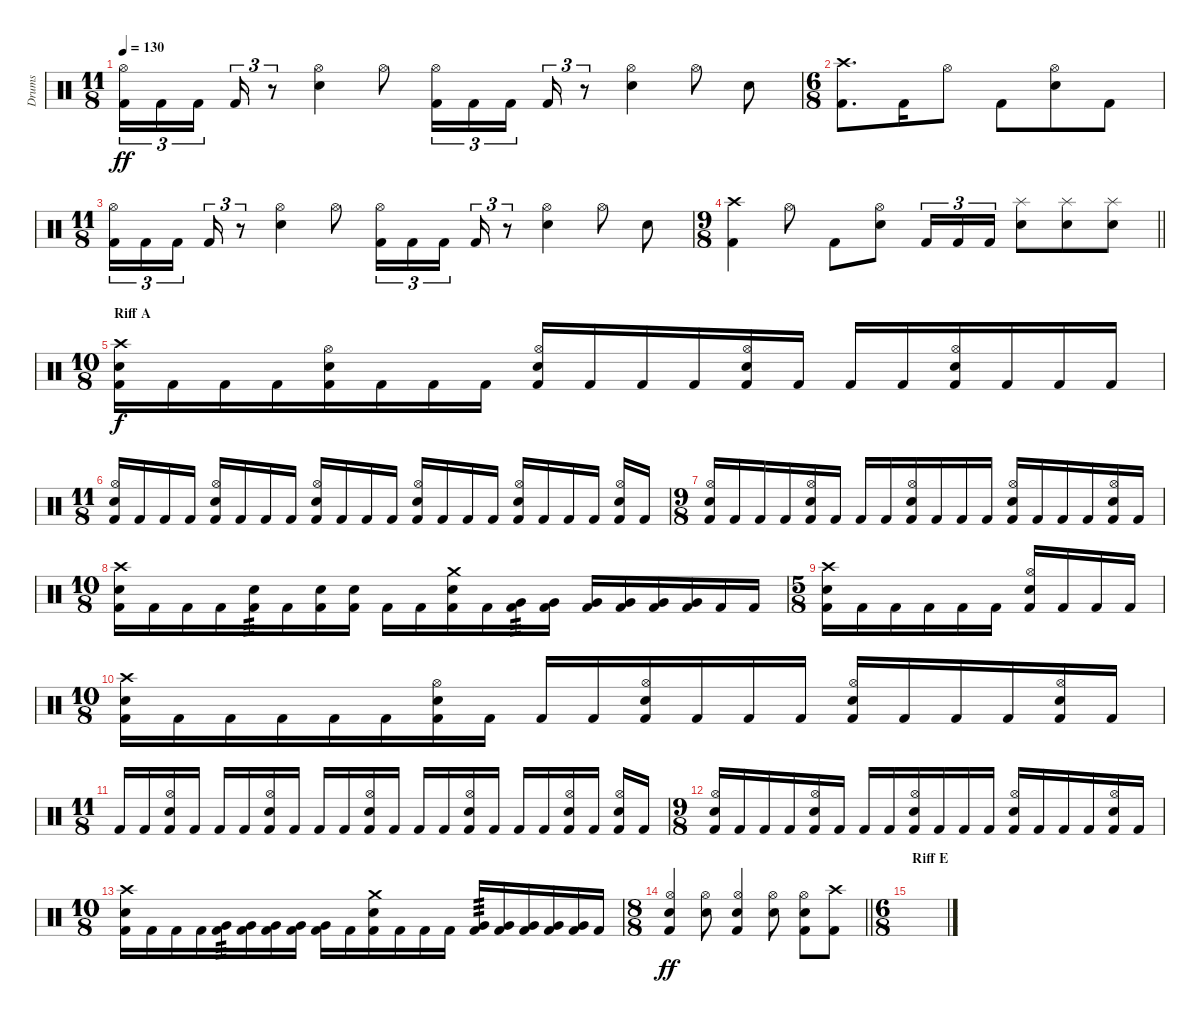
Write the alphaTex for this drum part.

\track ("Drums" "Drums") {instrument percussion}
\staff {score}
\articulation defaults
\ts (11 8)
\tempo 130
\clef neutral
\ks c
("Kick (hit) 2" "Hi-Hat (open)").16{tu (3 2) dy ff} "Kick (hit) 2".16{tu (3 2)} "Kick (hit) 2".16{tu (3 2)} "Kick (hit) 2".16{tu (3 2)} r.8{tu (3 2)} ("Hi-Hat (open)" "Snare (hit) 2").4 "Hi-Hat (open)".8 ("Kick (hit) 2" "Hi-Hat (open)").16{tu (3 2)} "Kick (hit) 2".16{tu (3 2)} "Kick (hit) 2".16{tu (3 2)} "Kick (hit) 2".16{tu (3 2)} r.8{tu (3 2)} ("Hi-Hat (open)" "Snare (hit) 2").4 "Hi-Hat (open)".8 "Snare (hit) 2".8 |
\ts (6 8)
("Crash high (hit)" "Kick (hit) 2").8{d} "Kick (hit) 2".16 "Hi-Hat (open)".8 "Kick (hit) 2".8 ("Snare (hit) 2" "Hi-Hat (open)").8 "Kick (hit) 2".8 |
\ts (11 8)
("Kick (hit) 2" "Hi-Hat (open)").16{tu (3 2)} "Kick (hit) 2".16{tu (3 2)} "Kick (hit) 2".16{tu (3 2)} "Kick (hit) 2".16{tu (3 2)} r.8{tu (3 2)} ("Hi-Hat (open)" "Snare (hit) 2").4 "Hi-Hat (open)".8 ("Kick (hit) 2" "Hi-Hat (open)").16{tu (3 2)} "Kick (hit) 2".16{tu (3 2)} "Kick (hit) 2".16{tu (3 2)} "Kick (hit) 2".16{tu (3 2)} r.8{tu (3 2)} ("Hi-Hat (open)" "Snare (hit) 2").4 "Hi-Hat (open)".8 "Snare (hit) 2".8 |
\ts (9 8)
\barLineRight lightlight
("Crash high (hit)" "Kick (hit) 2").4 "Hi-Hat (open)".8 "Kick (hit) 2".8 ("Hi-Hat (open)" "Snare (hit) 2").8 "Kick (hit) 2".16{tu (3 2)} "Kick (hit) 2".16{tu (3 2)} "Kick (hit) 2".16{tu (3 2)} ("Snare (hit) 2" "Splash (hit)").8 ("Snare (hit) 2" "Splash (hit)").8 ("Snare (hit) 2" "Splash (hit)").8 |
\ts (10 8)
\section ("" "Riff A")
("Crash high (hit)" "Kick (hit) 2" "Snare (hit) 2").16{dy f} "Kick (hit) 2".16 "Kick (hit) 2".16 "Kick (hit) 2".16 ("Hi-Hat (open)" "Kick (hit) 2" "Snare (hit) 2").16 "Kick (hit) 2".16 "Kick (hit) 2".16 "Kick (hit) 2".16 ("Hi-Hat (open)" "Kick (hit) 2" "Snare (hit) 2").16 "Kick (hit) 2".16 "Kick (hit) 2".16 "Kick (hit) 2".16 ("Hi-Hat (open)" "Kick (hit) 2" "Snare (hit) 2").16 "Kick (hit) 2".16 "Kick (hit) 2".16 "Kick (hit) 2".16 ("Hi-Hat (open)" "Kick (hit) 2" "Snare (hit) 2").16 "Kick (hit) 2".16 "Kick (hit) 2".16 "Kick (hit) 2".16 |
\ts (11 8)
("Hi-Hat (open)" "Kick (hit) 2" "Snare (hit) 2").16 "Kick (hit) 2".16 "Kick (hit) 2".16 "Kick (hit) 2".16 ("Hi-Hat (open)" "Kick (hit) 2" "Snare (hit) 2").16 "Kick (hit) 2".16 "Kick (hit) 2".16 "Kick (hit) 2".16 ("Hi-Hat (open)" "Kick (hit) 2" "Snare (hit) 2").16 "Kick (hit) 2".16 "Kick (hit) 2".16 "Kick (hit) 2".16 ("Hi-Hat (open)" "Kick (hit) 2" "Snare (hit) 2").16 "Kick (hit) 2".16 "Kick (hit) 2".16 "Kick (hit) 2".16 ("Hi-Hat (open)" "Kick (hit) 2" "Snare (hit) 2").16 "Kick (hit) 2".16 "Kick (hit) 2".16 "Kick (hit) 2".16 ("Hi-Hat (open)" "Kick (hit) 2" "Snare (hit) 2").16 "Kick (hit) 2".16 |
\ts (9 8)
("Hi-Hat (open)" "Kick (hit) 2" "Snare (hit) 2").16 "Kick (hit) 2".16 "Kick (hit) 2".16 "Kick (hit) 2".16 ("Hi-Hat (open)" "Kick (hit) 2" "Snare (hit) 2").16 "Kick (hit) 2".16 "Kick (hit) 2".16 "Kick (hit) 2".16 ("Hi-Hat (open)" "Kick (hit) 2" "Snare (hit) 2").16 "Kick (hit) 2".16 "Kick (hit) 2".16 "Kick (hit) 2".16 ("Hi-Hat (open)" "Kick (hit) 2" "Snare (hit) 2").16 "Kick (hit) 2".16 "Kick (hit) 2".16 "Kick (hit) 2".16 ("Hi-Hat (open)" "Kick (hit) 2" "Snare (hit) 2").16 "Kick (hit) 2".16 |
\ts (10 8)
("Crash high (hit)" "Kick (hit) 2" "Snare (hit) 2").16 "Kick (hit) 2".16 "Kick (hit) 2".16 "Kick (hit) 2".16 ("Kick (hit) 2" "Snare (hit) 2").16{tp 3} "Kick (hit) 2".16 ("Kick (hit) 2" "Snare (hit) 2").16 ("Kick (hit) 2" "Snare (hit) 2").16 "Kick (hit) 2".16 "Kick (hit) 2".16 ("Kick (hit) 2" "Crash medium (hit)" "Snare (hit) 2").16 "Kick (hit) 2".16 ("Kick (hit) 2" "Very Low Tom (hit)").16{tp 3} ("Kick (hit) 2" "Very Low Tom (hit)").16 ("Kick (hit) 2" "Very Low Tom (hit)").16 ("Kick (hit) 2" "Very Low Tom (hit)").16 ("Kick (hit) 2" "Very Low Tom (hit)").16 ("Kick (hit) 2" "Very Low Tom (hit)").16 "Kick (hit) 2".16 "Kick (hit) 2".16 |
\ts (5 8)
("Kick (hit) 2" "Snare (hit) 2" "Crash high (hit)").16 "Kick (hit) 2".16 "Kick (hit) 2".16 "Kick (hit) 2".16 "Kick (hit) 2".16 "Kick (hit) 2".16 ("Kick (hit) 2" "Hi-Hat (open)" "Snare (hit) 2").16 "Kick (hit) 2".16 "Kick (hit) 2".16 "Kick (hit) 2".16 |
\ts (10 8)
("Crash high (hit)" "Kick (hit) 2" "Snare (hit) 2").16 "Kick (hit) 2".16 "Kick (hit) 2".16 "Kick (hit) 2".16 "Kick (hit) 2".16 "Kick (hit) 2".16 ("Kick (hit) 2" "Snare (hit) 2" "Hi-Hat (open)").16 "Kick (hit) 2".16 "Kick (hit) 2".16 "Kick (hit) 2".16 ("Kick (hit) 2" "Snare (hit) 2" "Hi-Hat (open)").16 "Kick (hit) 2".16 "Kick (hit) 2".16 "Kick (hit) 2".16 ("Kick (hit) 2" "Snare (hit) 2" "Hi-Hat (open)").16 "Kick (hit) 2".16 "Kick (hit) 2".16 "Kick (hit) 2".16 ("Kick (hit) 2" "Snare (hit) 2" "Hi-Hat (open)").16 "Kick (hit) 2".16 |
\ts (11 8)
"Kick (hit) 2".16 "Kick (hit) 2".16 ("Kick (hit) 2" "Snare (hit) 2" "Hi-Hat (open)").16 "Kick (hit) 2".16 "Kick (hit) 2".16 "Kick (hit) 2".16 ("Kick (hit) 2" "Snare (hit) 2" "Hi-Hat (open)").16 "Kick (hit) 2".16 "Kick (hit) 2".16 "Kick (hit) 2".16 ("Kick (hit) 2" "Snare (hit) 2" "Hi-Hat (open)").16 "Kick (hit) 2".16 "Kick (hit) 2".16 "Kick (hit) 2".16 ("Kick (hit) 2" "Snare (hit) 2" "Hi-Hat (open)").16 "Kick (hit) 2".16 "Kick (hit) 2".16 "Kick (hit) 2".16 ("Kick (hit) 2" "Snare (hit) 2" "Hi-Hat (open)").16 "Kick (hit) 2".16 ("Snare (hit) 2" "Kick (hit) 2" "Hi-Hat (open)").16 "Kick (hit) 2".16 |
\ts (9 8)
("Hi-Hat (open)" "Kick (hit) 2" "Snare (hit) 2").16 "Kick (hit) 2".16 "Kick (hit) 2".16 "Kick (hit) 2".16 ("Hi-Hat (open)" "Kick (hit) 2" "Snare (hit) 2").16 "Kick (hit) 2".16 "Kick (hit) 2".16 "Kick (hit) 2".16 ("Hi-Hat (open)" "Kick (hit) 2" "Snare (hit) 2").16 "Kick (hit) 2".16 "Kick (hit) 2".16 "Kick (hit) 2".16 ("Hi-Hat (open)" "Kick (hit) 2" "Snare (hit) 2").16 "Kick (hit) 2".16 "Kick (hit) 2".16 "Kick (hit) 2".16 ("Hi-Hat (open)" "Kick (hit) 2" "Snare (hit) 2").16 "Kick (hit) 2".16 |
\ts (10 8)
("Crash high (hit)" "Kick (hit) 2" "Snare (hit) 2").16 "Kick (hit) 2".16 "Kick (hit) 2".16 "Kick (hit) 2".16 ("Kick (hit) 2" "Very Low Tom (hit)").16{tp 3} ("Very Low Tom (hit)" "Kick (hit) 2").16 ("Kick (hit) 2" "Very Low Tom (hit)").16 ("Kick (hit) 2" "Very Low Tom (hit)").16 ("Kick (hit) 2" "Very Low Tom (hit)").16 "Kick (hit) 2".16 ("Kick (hit) 2" "Crash medium (hit)" "Snare (hit) 2").16 "Kick (hit) 2".16 "Kick (hit) 2".16 "Kick (hit) 2".16 ("Kick (hit) 2" "Very Low Tom (hit)").16{tp 3} ("Kick (hit) 2" "Very Low Tom (hit)").16 ("Kick (hit) 2" "Very Low Tom (hit)").16 ("Kick (hit) 2" "Very Low Tom (hit)").16 ("Kick (hit) 2" "Very Low Tom (hit)").16 "Kick (hit) 2".16 |
\ts (8 8)
\barLineRight lightlight
("Snare (hit) 2" "Hi-Hat (open)" "Kick (hit) 2").4{dy ff} ("Hi-Hat (open)" "Snare (hit) 2").8 ("Kick (hit) 2" "Hi-Hat (open)" "Snare (hit) 2").4 ("Snare (hit) 2" "Hi-Hat (open)").8 ("Snare (hit) 2" "Hi-Hat (open)" "Kick (hit) 2").8 ("Kick (hit) 2" "Crash high (hit)").8 |
\ts (6 8)
\section ("" "Riff E")
